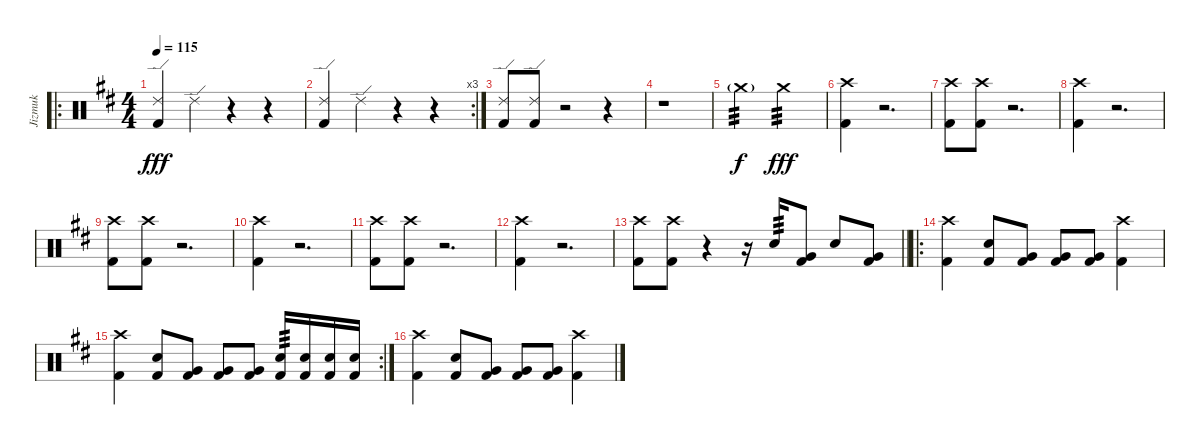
\track ("Jizmuk" "Jizmuk") {instrument percussion}
\staff {score}
\articulation defaults
\ro
\ts (4 4)
\tempo 115
\clef neutral
\ks d
("Ride (edge) 2" "Kick (hit) 2").4{dy fff} "Ride (edge) 2".4 r.4 r.4 |
\rc 3
("Ride (edge) 2" "Kick (hit) 2").4 "Ride (edge) 2".4 r.4 r.4 |
("Ride (edge) 2" "Kick (hit) 2").8 ("Ride (edge) 2" "Kick (hit) 2").8 r.2 r.4 |
r.1 |
"Crash medium (hit)"{g}.2{tp 3 dy f} "Crash medium (hit)".2{tp 3 dy fff} |
("Crash high (hit)" "Kick (hit) 2").4 r.2{d} |
("Kick (hit) 2" "Crash high (hit)").8 ("Kick (hit) 2" "Crash high (hit)").8 r.2{d} |
("Crash high (hit)" "Kick (hit) 2").4 r.2{d} |
("Kick (hit) 2" "Crash high (hit)").8 ("Kick (hit) 2" "Crash high (hit)").8 r.2{d} |
("Crash high (hit)" "Kick (hit) 2").4 r.2{d} |
("Kick (hit) 2" "Crash high (hit)").8 ("Kick (hit) 2" "Crash high (hit)").8 r.2{d} |
("Crash high (hit)" "Kick (hit) 2").4 r.2{d} |
\barLineRight lightlight
("Kick (hit) 2" "Crash high (hit)").8 ("Kick (hit) 2" "Crash high (hit)").8 r.4 r.16 "Snare (hit) 2".16{tp 3} ("Kick (hit) 2" "Very Low Tom (hit)").8 "Snare (hit) 2".8 ("Kick (hit) 2" "Very Low Tom (hit)").8 |
\ro
("Crash high (hit)" "Kick (hit) 2").4 ("Kick (hit) 2" "Snare (hit) 2").8 ("Very Low Tom (hit)" "Kick (hit) 2").8 ("Very Low Tom (hit)" "Kick (hit) 2").8 ("Very Low Tom (hit)" "Kick (hit) 2").8 ("Crash high (hit)" "Kick (hit) 2").4 |
\rc 2
("Crash high (hit)" "Kick (hit) 2").4 ("Snare (hit) 2" "Kick (hit) 2").8 ("Very Low Tom (hit)" "Kick (hit) 2").8 ("Very Low Tom (hit)" "Kick (hit) 2").8 ("Very Low Tom (hit)" "Kick (hit) 2").8 ("Kick (hit) 2" "Snare (hit) 2").16{tp 3} ("Kick (hit) 2" "Snare (hit) 2").16 ("Kick (hit) 2" "Snare (hit) 2").16 ("Kick (hit) 2" "Snare (hit) 2").16 |
("Crash high (hit)" "Kick (hit) 2").4 ("Kick (hit) 2" "Snare (hit) 2").8 ("Very Low Tom (hit)" "Kick (hit) 2").8 ("Very Low Tom (hit)" "Kick (hit) 2").8 ("Very Low Tom (hit)" "Kick (hit) 2").8 ("Crash high (hit)" "Kick (hit) 2").4
